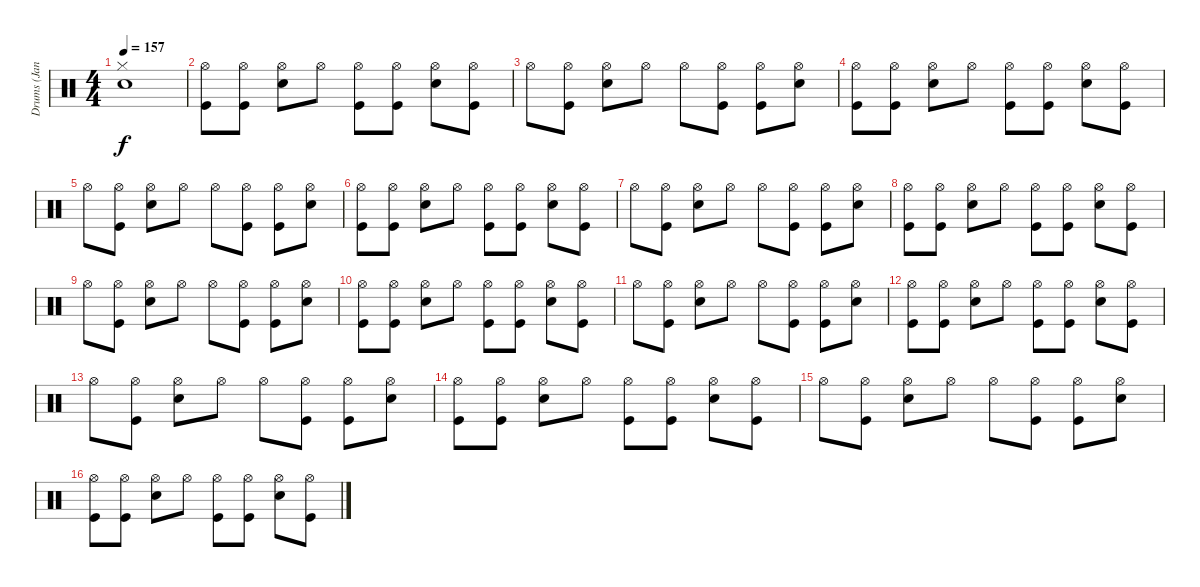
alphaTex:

\track ("Drums (Janet)" "Drums (Jan") {instrument percussion}
\staff {score}
\articulation defaults
\ts (4 4)
\tempo 157
\clef neutral
\ks c
("Hi-Hat (closed)" "Snare (hit) 2").1{dy f} |
("Hi-Hat (open)" "Kick (hit)").8 ("Hi-Hat (open)" "Kick (hit)").8 ("Hi-Hat (open)" "Snare (hit) 2").8 "Hi-Hat (open)".8 ("Hi-Hat (open)" "Kick (hit)").8 ("Hi-Hat (open)" "Kick (hit)").8 ("Hi-Hat (open)" "Snare (hit) 2").8 ("Hi-Hat (open)" "Kick (hit)").8 |
"Hi-Hat (open)".8 ("Hi-Hat (open)" "Kick (hit)").8 ("Hi-Hat (open)" "Snare (hit) 2").8 "Hi-Hat (open)".8 "Hi-Hat (open)".8 ("Hi-Hat (open)" "Kick (hit)").8 ("Hi-Hat (open)" "Kick (hit)").8 ("Hi-Hat (open)" "Snare (hit) 2").8 |
("Hi-Hat (open)" "Kick (hit)").8 ("Hi-Hat (open)" "Kick (hit)").8 ("Hi-Hat (open)" "Snare (hit) 2").8 "Hi-Hat (open)".8 ("Hi-Hat (open)" "Kick (hit)").8 ("Hi-Hat (open)" "Kick (hit)").8 ("Hi-Hat (open)" "Snare (hit) 2").8 ("Hi-Hat (open)" "Kick (hit)").8 |
"Hi-Hat (open)".8 ("Hi-Hat (open)" "Kick (hit)").8 ("Hi-Hat (open)" "Snare (hit) 2").8 "Hi-Hat (open)".8 "Hi-Hat (open)".8 ("Hi-Hat (open)" "Kick (hit)").8 ("Hi-Hat (open)" "Kick (hit)").8 ("Hi-Hat (open)" "Snare (hit) 2").8 |
("Hi-Hat (open)" "Kick (hit)").8 ("Hi-Hat (open)" "Kick (hit)").8 ("Hi-Hat (open)" "Snare (hit) 2").8 "Hi-Hat (open)".8 ("Hi-Hat (open)" "Kick (hit)").8 ("Hi-Hat (open)" "Kick (hit)").8 ("Hi-Hat (open)" "Snare (hit) 2").8 ("Hi-Hat (open)" "Kick (hit)").8 |
"Hi-Hat (open)".8 ("Hi-Hat (open)" "Kick (hit)").8 ("Hi-Hat (open)" "Snare (hit) 2").8 "Hi-Hat (open)".8 "Hi-Hat (open)".8 ("Hi-Hat (open)" "Kick (hit)").8 ("Hi-Hat (open)" "Kick (hit)").8 ("Hi-Hat (open)" "Snare (hit) 2").8 |
("Hi-Hat (open)" "Kick (hit)").8 ("Hi-Hat (open)" "Kick (hit)").8 ("Hi-Hat (open)" "Snare (hit) 2").8 "Hi-Hat (open)".8 ("Hi-Hat (open)" "Kick (hit)").8 ("Hi-Hat (open)" "Kick (hit)").8 ("Hi-Hat (open)" "Snare (hit) 2").8 ("Hi-Hat (open)" "Kick (hit)").8 |
"Hi-Hat (open)".8 ("Hi-Hat (open)" "Kick (hit)").8 ("Hi-Hat (open)" "Snare (hit) 2").8 "Hi-Hat (open)".8 "Hi-Hat (open)".8 ("Hi-Hat (open)" "Kick (hit)").8 ("Hi-Hat (open)" "Kick (hit)").8 ("Hi-Hat (open)" "Snare (hit) 2").8 |
("Hi-Hat (open)" "Kick (hit)").8 ("Hi-Hat (open)" "Kick (hit)").8 ("Hi-Hat (open)" "Snare (hit) 2").8 "Hi-Hat (open)".8 ("Hi-Hat (open)" "Kick (hit)").8 ("Hi-Hat (open)" "Kick (hit)").8 ("Hi-Hat (open)" "Snare (hit) 2").8 ("Hi-Hat (open)" "Kick (hit)").8 |
"Hi-Hat (open)".8 ("Hi-Hat (open)" "Kick (hit)").8 ("Hi-Hat (open)" "Snare (hit) 2").8 "Hi-Hat (open)".8 "Hi-Hat (open)".8 ("Hi-Hat (open)" "Kick (hit)").8 ("Hi-Hat (open)" "Kick (hit)").8 ("Hi-Hat (open)" "Snare (hit) 2").8 |
("Hi-Hat (open)" "Kick (hit)").8 ("Hi-Hat (open)" "Kick (hit)").8 ("Hi-Hat (open)" "Snare (hit) 2").8 "Hi-Hat (open)".8 ("Hi-Hat (open)" "Kick (hit)").8 ("Hi-Hat (open)" "Kick (hit)").8 ("Hi-Hat (open)" "Snare (hit) 2").8 ("Hi-Hat (open)" "Kick (hit)").8 |
"Hi-Hat (open)".8 ("Hi-Hat (open)" "Kick (hit)").8 ("Hi-Hat (open)" "Snare (hit) 2").8 "Hi-Hat (open)".8 "Hi-Hat (open)".8 ("Hi-Hat (open)" "Kick (hit)").8 ("Hi-Hat (open)" "Kick (hit)").8 ("Hi-Hat (open)" "Snare (hit) 2").8 |
("Hi-Hat (open)" "Kick (hit)").8 ("Hi-Hat (open)" "Kick (hit)").8 ("Hi-Hat (open)" "Snare (hit) 2").8 "Hi-Hat (open)".8 ("Hi-Hat (open)" "Kick (hit)").8 ("Hi-Hat (open)" "Kick (hit)").8 ("Hi-Hat (open)" "Snare (hit) 2").8 ("Hi-Hat (open)" "Kick (hit)").8 |
"Hi-Hat (open)".8 ("Hi-Hat (open)" "Kick (hit)").8 ("Hi-Hat (open)" "Snare (hit) 2").8 "Hi-Hat (open)".8 "Hi-Hat (open)".8 ("Hi-Hat (open)" "Kick (hit)").8 ("Hi-Hat (open)" "Kick (hit)").8 ("Hi-Hat (open)" "Snare (hit) 2").8 |
("Hi-Hat (open)" "Kick (hit)").8 ("Hi-Hat (open)" "Kick (hit)").8 ("Hi-Hat (open)" "Snare (hit) 2").8 "Hi-Hat (open)".8 ("Hi-Hat (open)" "Kick (hit)").8 ("Hi-Hat (open)" "Kick (hit)").8 ("Hi-Hat (open)" "Snare (hit) 2").8 ("Hi-Hat (open)" "Kick (hit)").8
